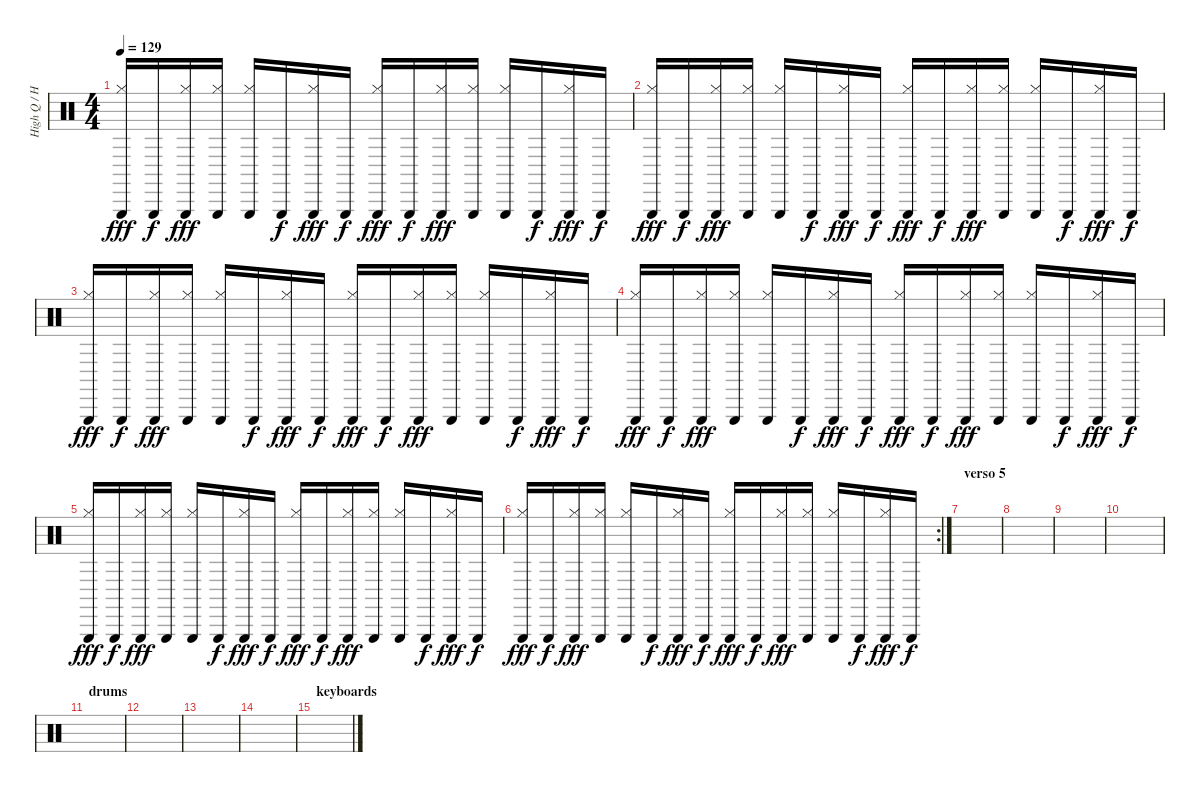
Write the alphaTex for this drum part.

\track ("High Q / Hats" "High Q / H") {instrument percussion}
\staff {score}
\articulation defaults
\ts (4 4)
\tempo 129
\clef neutral
\ks c
("Triangle (hit)" "Hi-Hat (closed)").16{dy fff} "Triangle (hit)".16{dy f} ("Triangle (hit)" "Hi-Hat (closed)").16{dy fff} ("Triangle (hit)" "Hi-Hat (closed)").16 ("Triangle (hit)" "Hi-Hat (closed)").16 "Triangle (hit)".16{dy f} ("Triangle (hit)" "Hi-Hat (closed)").16{dy fff} "Triangle (hit)".16{dy f} ("Triangle (hit)" "Hi-Hat (closed)").16{dy fff} "Triangle (hit)".16{dy f} ("Triangle (hit)" "Hi-Hat (closed)").16{dy fff} ("Triangle (hit)" "Hi-Hat (closed)").16 ("Triangle (hit)" "Hi-Hat (closed)").16 "Triangle (hit)".16{dy f} ("Triangle (hit)" "Hi-Hat (closed)").16{dy fff} "Triangle (hit)".16{dy f} |
("Triangle (hit)" "Hi-Hat (closed)").16{dy fff} "Triangle (hit)".16{dy f} ("Triangle (hit)" "Hi-Hat (closed)").16{dy fff} ("Triangle (hit)" "Hi-Hat (closed)").16 ("Triangle (hit)" "Hi-Hat (closed)").16 "Triangle (hit)".16{dy f} ("Triangle (hit)" "Hi-Hat (closed)").16{dy fff} "Triangle (hit)".16{dy f} ("Triangle (hit)" "Hi-Hat (closed)").16{dy fff} "Triangle (hit)".16{dy f} ("Triangle (hit)" "Hi-Hat (closed)").16{dy fff} ("Triangle (hit)" "Hi-Hat (closed)").16 ("Triangle (hit)" "Hi-Hat (closed)").16 "Triangle (hit)".16{dy f} ("Triangle (hit)" "Hi-Hat (closed)").16{dy fff} "Triangle (hit)".16{dy f} |
("Triangle (hit)" "Hi-Hat (closed)").16{dy fff} "Triangle (hit)".16{dy f} ("Triangle (hit)" "Hi-Hat (closed)").16{dy fff} ("Triangle (hit)" "Hi-Hat (closed)").16 ("Triangle (hit)" "Hi-Hat (closed)").16 "Triangle (hit)".16{dy f} ("Triangle (hit)" "Hi-Hat (closed)").16{dy fff} "Triangle (hit)".16{dy f} ("Triangle (hit)" "Hi-Hat (closed)").16{dy fff} "Triangle (hit)".16{dy f} ("Triangle (hit)" "Hi-Hat (closed)").16{dy fff} ("Triangle (hit)" "Hi-Hat (closed)").16 ("Triangle (hit)" "Hi-Hat (closed)").16 "Triangle (hit)".16{dy f} ("Triangle (hit)" "Hi-Hat (closed)").16{dy fff} "Triangle (hit)".16{dy f} |
("Triangle (hit)" "Hi-Hat (closed)").16{dy fff} "Triangle (hit)".16{dy f} ("Triangle (hit)" "Hi-Hat (closed)").16{dy fff} ("Triangle (hit)" "Hi-Hat (closed)").16 ("Triangle (hit)" "Hi-Hat (closed)").16 "Triangle (hit)".16{dy f} ("Triangle (hit)" "Hi-Hat (closed)").16{dy fff} "Triangle (hit)".16{dy f} ("Triangle (hit)" "Hi-Hat (closed)").16{dy fff} "Triangle (hit)".16{dy f} ("Triangle (hit)" "Hi-Hat (closed)").16{dy fff} ("Triangle (hit)" "Hi-Hat (closed)").16 ("Triangle (hit)" "Hi-Hat (closed)").16 "Triangle (hit)".16{dy f} ("Triangle (hit)" "Hi-Hat (closed)").16{dy fff} "Triangle (hit)".16{dy f} |
("Triangle (hit)" "Hi-Hat (closed)").16{dy fff} "Triangle (hit)".16{dy f} ("Triangle (hit)" "Hi-Hat (closed)").16{dy fff} ("Triangle (hit)" "Hi-Hat (closed)").16 ("Triangle (hit)" "Hi-Hat (closed)").16 "Triangle (hit)".16{dy f} ("Triangle (hit)" "Hi-Hat (closed)").16{dy fff} "Triangle (hit)".16{dy f} ("Triangle (hit)" "Hi-Hat (closed)").16{dy fff} "Triangle (hit)".16{dy f} ("Triangle (hit)" "Hi-Hat (closed)").16{dy fff} ("Triangle (hit)" "Hi-Hat (closed)").16 ("Triangle (hit)" "Hi-Hat (closed)").16 "Triangle (hit)".16{dy f} ("Triangle (hit)" "Hi-Hat (closed)").16{dy fff} "Triangle (hit)".16{dy f} |
\rc 2
("Triangle (hit)" "Hi-Hat (closed)").16{dy fff} "Triangle (hit)".16{dy f} ("Triangle (hit)" "Hi-Hat (closed)").16{dy fff} ("Triangle (hit)" "Hi-Hat (closed)").16 ("Triangle (hit)" "Hi-Hat (closed)").16 "Triangle (hit)".16{dy f} ("Triangle (hit)" "Hi-Hat (closed)").16{dy fff} "Triangle (hit)".16{dy f} ("Triangle (hit)" "Hi-Hat (closed)").16{dy fff} "Triangle (hit)".16{dy f} ("Triangle (hit)" "Hi-Hat (closed)").16{dy fff} ("Triangle (hit)" "Hi-Hat (closed)").16 ("Triangle (hit)" "Hi-Hat (closed)").16 "Triangle (hit)".16{dy f} ("Triangle (hit)" "Hi-Hat (closed)").16{dy fff} "Triangle (hit)".16{dy f} |
\section ("" "verso 5")
|
|
|
|
\section ("" "drums")
|
|
|
|
\section ("" "keyboards")
